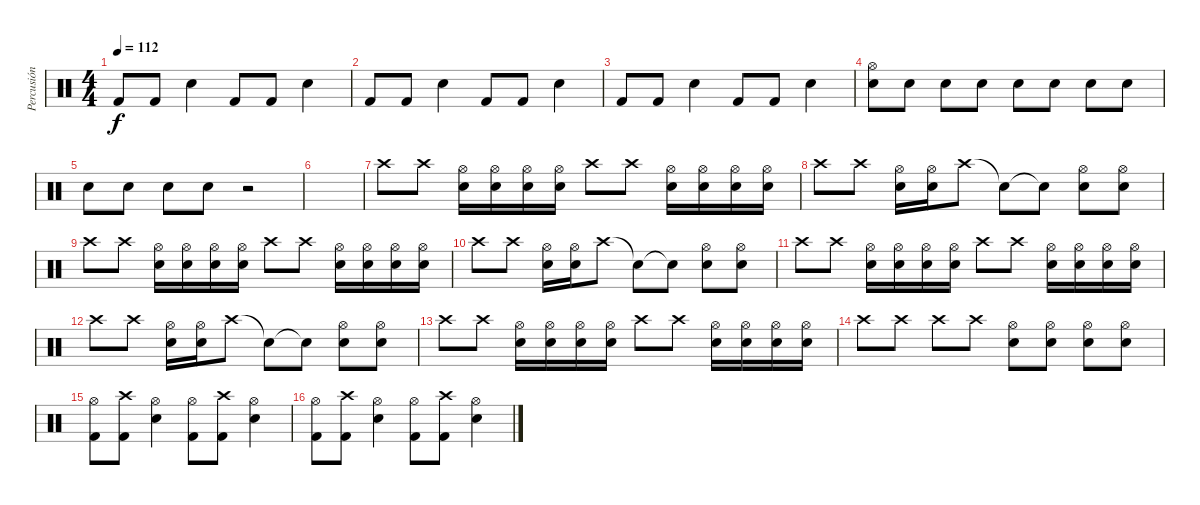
\track ("Percusión" "Percusión") {instrument percussion}
\staff {score}
\articulation defaults
\ts (4 4)
\tempo 112
\clef neutral
\ks c "Kick (hit) 2".8{dy f} "Kick (hit) 2".8 "Snare (hit) 2".4 "Kick (hit) 2".8 "Kick (hit) 2".8 "Snare (hit) 2".4
|
"Kick (hit) 2".8 "Kick (hit) 2".8 "Snare (hit) 2".4 "Kick (hit) 2".8 "Kick (hit) 2".8 "Snare (hit) 2".4 |
"Kick (hit) 2".8 "Kick (hit) 2".8 "Snare (hit) 2".4 "Kick (hit) 2".8 "Kick (hit) 2".8 "Snare (hit) 2".4 |
("Hi-Hat (open)" "Snare (hit) 2").8 "Snare (hit) 2".8 "Snare (hit) 2".8 "Snare (hit) 2".8 "Snare (hit) 2".8 "Snare (hit) 2".8 "Snare (hit) 2".8 "Snare (hit) 2".8 |
"Snare (hit) 2".8 "Snare (hit) 2".8 "Snare (hit) 2".8 "Snare (hit) 2".8 r.2 |
|
"Crash high (hit)".8 "Crash high (hit)".8 ("Hi-Hat (open)" "Snare (hit) 2").16 ("Hi-Hat (open)" "Snare (hit) 2").16 ("Hi-Hat (open)" "Snare (hit) 2").16 ("Hi-Hat (open)" "Snare (hit) 2").16 "Crash high (hit)".8 "Crash high (hit)".8 ("Hi-Hat (open)" "Snare (hit) 2").16 ("Hi-Hat (open)" "Snare (hit) 2").16 ("Hi-Hat (open)" "Snare (hit) 2").16 ("Hi-Hat (open)" "Snare (hit) 2").16 |
"Crash high (hit)".8 "Crash high (hit)".8 ("Hi-Hat (open)" "Snare (hit) 2").16 ("Hi-Hat (open)" "Snare (hit) 2").16 "Crash high (hit)".8 "Snare (hit)"{t}.8 "Snare (hit)"{t}.8 ("Hi-Hat (open)" "Snare (hit) 2").8 ("Hi-Hat (open)" "Snare (hit) 2").8 |
"Crash high (hit)".8 "Crash high (hit)".8 ("Hi-Hat (open)" "Snare (hit) 2").16 ("Hi-Hat (open)" "Snare (hit) 2").16 ("Hi-Hat (open)" "Snare (hit) 2").16 ("Hi-Hat (open)" "Snare (hit) 2").16 "Crash high (hit)".8 "Crash high (hit)".8 ("Hi-Hat (open)" "Snare (hit) 2").16 ("Hi-Hat (open)" "Snare (hit) 2").16 ("Hi-Hat (open)" "Snare (hit) 2").16 ("Hi-Hat (open)" "Snare (hit) 2").16 |
"Crash high (hit)".8 "Crash high (hit)".8 ("Hi-Hat (open)" "Snare (hit) 2").16 ("Hi-Hat (open)" "Snare (hit) 2").16 "Crash high (hit)".8 "Snare (hit)"{t}.8 "Snare (hit)"{t}.8 ("Hi-Hat (open)" "Snare (hit) 2").8 ("Hi-Hat (open)" "Snare (hit) 2").8 |
"Crash high (hit)".8 "Crash high (hit)".8 ("Hi-Hat (open)" "Snare (hit) 2").16 ("Hi-Hat (open)" "Snare (hit) 2").16 ("Hi-Hat (open)" "Snare (hit) 2").16 ("Hi-Hat (open)" "Snare (hit) 2").16 "Crash high (hit)".8 "Crash high (hit)".8 ("Hi-Hat (open)" "Snare (hit) 2").16 ("Hi-Hat (open)" "Snare (hit) 2").16 ("Hi-Hat (open)" "Snare (hit) 2").16 ("Hi-Hat (open)" "Snare (hit) 2").16 |
"Crash high (hit)".8 "Crash high (hit)".8 ("Hi-Hat (open)" "Snare (hit) 2").16 ("Hi-Hat (open)" "Snare (hit) 2").16 "Crash high (hit)".8 "Snare (hit)"{t}.8 "Snare (hit)"{t}.8 ("Hi-Hat (open)" "Snare (hit) 2").8 ("Hi-Hat (open)" "Snare (hit) 2").8 |
"Crash high (hit)".8 "Crash high (hit)".8 ("Hi-Hat (open)" "Snare (hit) 2").16 ("Hi-Hat (open)" "Snare (hit) 2").16 ("Hi-Hat (open)" "Snare (hit) 2").16 ("Hi-Hat (open)" "Snare (hit) 2").16 "Crash high (hit)".8 "Crash high (hit)".8 ("Hi-Hat (open)" "Snare (hit) 2").16 ("Hi-Hat (open)" "Snare (hit) 2").16 ("Hi-Hat (open)" "Snare (hit) 2").16 ("Hi-Hat (open)" "Snare (hit) 2").16 |
"Crash high (hit)".8 "Crash high (hit)".8 "Crash high (hit)".8 "Crash high (hit)".8 ("Hi-Hat (open)" "Snare (hit) 2").8 ("Hi-Hat (open)" "Snare (hit) 2").8 ("Hi-Hat (open)" "Snare (hit) 2").8 ("Hi-Hat (open)" "Snare (hit) 2").8 |
("Hi-Hat (open)" "Kick (hit) 2").8 ("Crash high (hit)" "Kick (hit) 2").8 ("Hi-Hat (open)" "Snare (hit) 2").4 ("Hi-Hat (open)" "Kick (hit) 2").8 ("Crash high (hit)" "Kick (hit) 2").8 ("Hi-Hat (open)" "Snare (hit) 2").4 |
("Hi-Hat (open)" "Kick (hit) 2").8 ("Crash high (hit)" "Kick (hit) 2").8 ("Hi-Hat (open)" "Snare (hit) 2").4 ("Hi-Hat (open)" "Kick (hit) 2").8 ("Crash high (hit)" "Kick (hit) 2").8 ("Hi-Hat (open)" "Snare (hit) 2").4
